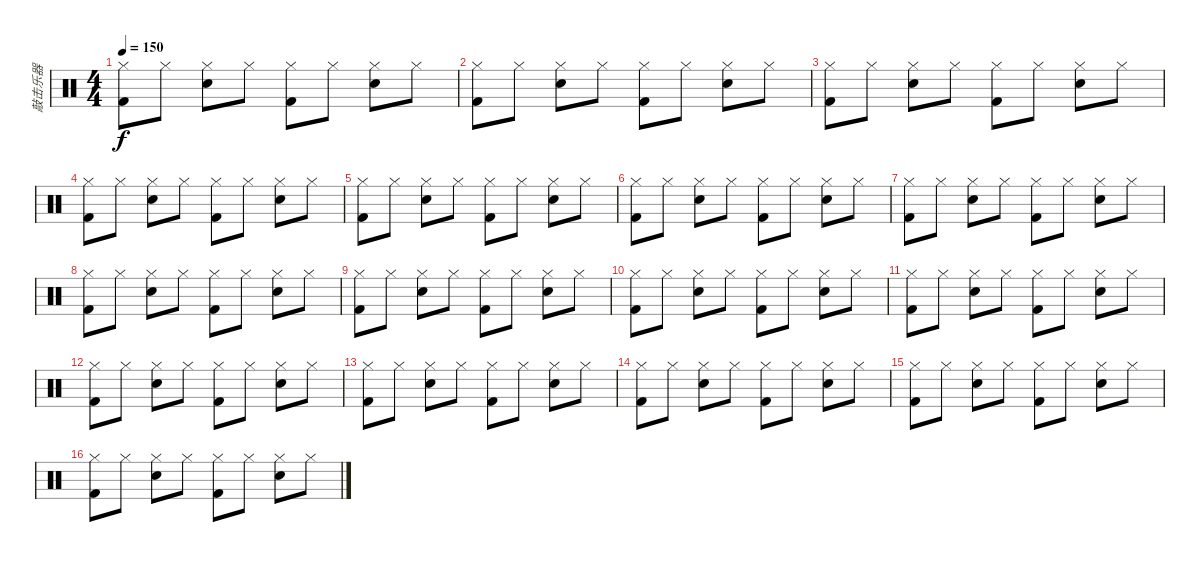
\track ("敲击乐器" "敲击乐器") {instrument percussion}
\staff {score}
\articulation defaults
\ts (4 4)
\tempo 150
\clef neutral
\ks c
("Kick (hit) 2" "Hi-Hat (closed)").8{dy f} "Hi-Hat (closed)".8 ("Electric Snare (hit)" "Hi-Hat (closed)").8 "Hi-Hat (closed)".8 ("Kick (hit) 2" "Hi-Hat (closed)").8 "Hi-Hat (closed)".8 ("Electric Snare (hit)" "Hi-Hat (closed)").8 "Hi-Hat (closed)".8 |
("Kick (hit) 2" "Hi-Hat (closed)").8 "Hi-Hat (closed)".8 ("Electric Snare (hit)" "Hi-Hat (closed)").8 "Hi-Hat (closed)".8 ("Kick (hit) 2" "Hi-Hat (closed)").8 "Hi-Hat (closed)".8 ("Electric Snare (hit)" "Hi-Hat (closed)").8 "Hi-Hat (closed)".8 |
("Kick (hit) 2" "Hi-Hat (closed)").8 "Hi-Hat (closed)".8 ("Electric Snare (hit)" "Hi-Hat (closed)").8 "Hi-Hat (closed)".8 ("Kick (hit) 2" "Hi-Hat (closed)").8 "Hi-Hat (closed)".8 ("Electric Snare (hit)" "Hi-Hat (closed)").8 "Hi-Hat (closed)".8 |
("Kick (hit) 2" "Hi-Hat (closed)").8 "Hi-Hat (closed)".8 ("Electric Snare (hit)" "Hi-Hat (closed)").8 "Hi-Hat (closed)".8 ("Kick (hit) 2" "Hi-Hat (closed)").8 "Hi-Hat (closed)".8 ("Electric Snare (hit)" "Hi-Hat (closed)").8 "Hi-Hat (closed)".8 |
("Kick (hit) 2" "Hi-Hat (closed)").8 "Hi-Hat (closed)".8 ("Electric Snare (hit)" "Hi-Hat (closed)").8 "Hi-Hat (closed)".8 ("Kick (hit) 2" "Hi-Hat (closed)").8 "Hi-Hat (closed)".8 ("Electric Snare (hit)" "Hi-Hat (closed)").8 "Hi-Hat (closed)".8 |
("Kick (hit) 2" "Hi-Hat (closed)").8 "Hi-Hat (closed)".8 ("Electric Snare (hit)" "Hi-Hat (closed)").8 "Hi-Hat (closed)".8 ("Kick (hit) 2" "Hi-Hat (closed)").8 "Hi-Hat (closed)".8 ("Electric Snare (hit)" "Hi-Hat (closed)").8 "Hi-Hat (closed)".8 |
("Kick (hit) 2" "Hi-Hat (closed)").8 "Hi-Hat (closed)".8 ("Electric Snare (hit)" "Hi-Hat (closed)").8 "Hi-Hat (closed)".8 ("Kick (hit) 2" "Hi-Hat (closed)").8 "Hi-Hat (closed)".8 ("Electric Snare (hit)" "Hi-Hat (closed)").8 "Hi-Hat (closed)".8 |
("Kick (hit) 2" "Hi-Hat (closed)").8 "Hi-Hat (closed)".8 ("Electric Snare (hit)" "Hi-Hat (closed)").8 "Hi-Hat (closed)".8 ("Kick (hit) 2" "Hi-Hat (closed)").8 "Hi-Hat (closed)".8 ("Electric Snare (hit)" "Hi-Hat (closed)").8 "Hi-Hat (closed)".8 |
("Kick (hit) 2" "Hi-Hat (closed)").8 "Hi-Hat (closed)".8 ("Electric Snare (hit)" "Hi-Hat (closed)").8 "Hi-Hat (closed)".8 ("Kick (hit) 2" "Hi-Hat (closed)").8 "Hi-Hat (closed)".8 ("Electric Snare (hit)" "Hi-Hat (closed)").8 "Hi-Hat (closed)".8 |
("Kick (hit) 2" "Hi-Hat (closed)").8 "Hi-Hat (closed)".8 ("Electric Snare (hit)" "Hi-Hat (closed)").8 "Hi-Hat (closed)".8 ("Kick (hit) 2" "Hi-Hat (closed)").8 "Hi-Hat (closed)".8 ("Electric Snare (hit)" "Hi-Hat (closed)").8 "Hi-Hat (closed)".8 |
("Kick (hit) 2" "Hi-Hat (closed)").8 "Hi-Hat (closed)".8 ("Electric Snare (hit)" "Hi-Hat (closed)").8 "Hi-Hat (closed)".8 ("Kick (hit) 2" "Hi-Hat (closed)").8 "Hi-Hat (closed)".8 ("Electric Snare (hit)" "Hi-Hat (closed)").8 "Hi-Hat (closed)".8 |
("Kick (hit) 2" "Hi-Hat (closed)").8 "Hi-Hat (closed)".8 ("Electric Snare (hit)" "Hi-Hat (closed)").8 "Hi-Hat (closed)".8 ("Kick (hit) 2" "Hi-Hat (closed)").8 "Hi-Hat (closed)".8 ("Electric Snare (hit)" "Hi-Hat (closed)").8 "Hi-Hat (closed)".8 |
("Kick (hit) 2" "Hi-Hat (closed)").8 "Hi-Hat (closed)".8 ("Electric Snare (hit)" "Hi-Hat (closed)").8 "Hi-Hat (closed)".8 ("Kick (hit) 2" "Hi-Hat (closed)").8 "Hi-Hat (closed)".8 ("Electric Snare (hit)" "Hi-Hat (closed)").8 "Hi-Hat (closed)".8 |
("Kick (hit) 2" "Hi-Hat (closed)").8 "Hi-Hat (closed)".8 ("Electric Snare (hit)" "Hi-Hat (closed)").8 "Hi-Hat (closed)".8 ("Kick (hit) 2" "Hi-Hat (closed)").8 "Hi-Hat (closed)".8 ("Electric Snare (hit)" "Hi-Hat (closed)").8 "Hi-Hat (closed)".8 |
("Kick (hit) 2" "Hi-Hat (closed)").8 "Hi-Hat (closed)".8 ("Electric Snare (hit)" "Hi-Hat (closed)").8 "Hi-Hat (closed)".8 ("Kick (hit) 2" "Hi-Hat (closed)").8 "Hi-Hat (closed)".8 ("Electric Snare (hit)" "Hi-Hat (closed)").8 "Hi-Hat (closed)".8 |
("Kick (hit) 2" "Hi-Hat (closed)").8 "Hi-Hat (closed)".8 ("Electric Snare (hit)" "Hi-Hat (closed)").8 "Hi-Hat (closed)".8 ("Kick (hit) 2" "Hi-Hat (closed)").8 "Hi-Hat (closed)".8 ("Electric Snare (hit)" "Hi-Hat (closed)").8 "Hi-Hat (closed)".8
